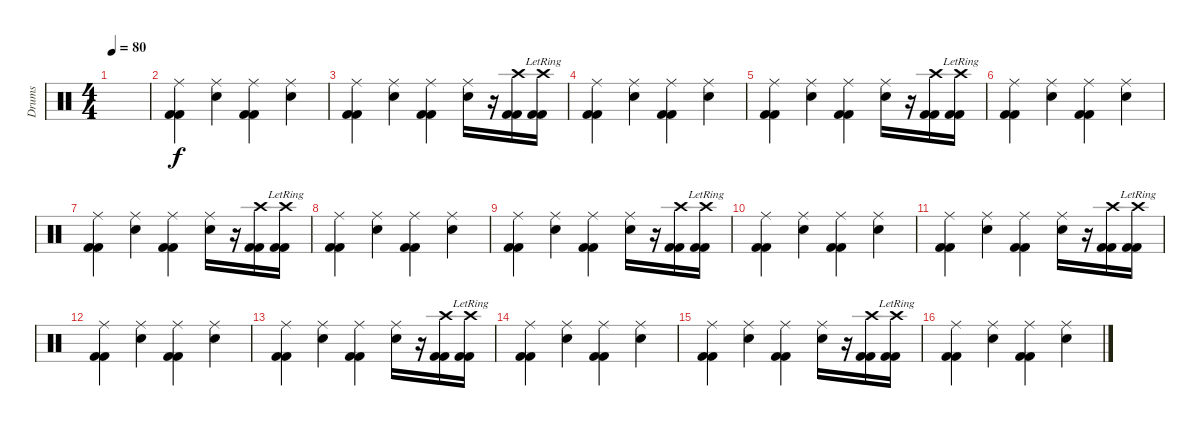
\track ("Drums" "Drums") {instrument percussion}
\staff {score}
\articulation defaults
\ts (4 4)
\tempo 80
\clef neutral
\ks c
|
("Ride (middle)" "Kick (hit) 2" "Kick (hit) 2").4 ("Ride (middle)" "Snare (hit) 2").4 ("Ride (middle)" "Kick (hit) 2" "Kick (hit) 2").4 ("Ride (middle)" "Snare (hit) 2").4 |
("Ride (middle)" "Kick (hit) 2" "Kick (hit) 2").4 ("Ride (middle)" "Snare (hit) 2").4 ("Ride (middle)" "Kick (hit) 2" "Kick (hit) 2").4 ("Ride (middle)" "Snare (hit) 2").16 r.16 ("Crash high (hit)" "Kick (hit) 2" "Kick (hit) 2").16 ("Crash high (hit)"{lr} "Kick (hit) 2" "Kick (hit) 2").16 |
("Ride (middle)" "Kick (hit) 2" "Kick (hit) 2").4 ("Ride (middle)" "Snare (hit) 2").4 ("Ride (middle)" "Kick (hit) 2" "Kick (hit) 2").4 ("Ride (middle)" "Snare (hit) 2").4 |
("Ride (middle)" "Kick (hit) 2" "Kick (hit) 2").4 ("Ride (middle)" "Snare (hit) 2").4 ("Ride (middle)" "Kick (hit) 2" "Kick (hit) 2").4 ("Ride (middle)" "Snare (hit) 2").16 r.16 ("Crash high (hit)" "Kick (hit) 2" "Kick (hit) 2").16 ("Crash high (hit)"{lr} "Kick (hit) 2" "Kick (hit) 2").16 |
("Ride (middle)" "Kick (hit) 2" "Kick (hit) 2").4 ("Ride (middle)" "Snare (hit) 2").4 ("Ride (middle)" "Kick (hit) 2" "Kick (hit) 2").4 ("Ride (middle)" "Snare (hit) 2").4 |
("Ride (middle)" "Kick (hit) 2" "Kick (hit) 2").4 ("Ride (middle)" "Snare (hit) 2").4 ("Ride (middle)" "Kick (hit) 2" "Kick (hit) 2").4 ("Ride (middle)" "Snare (hit) 2").16 r.16 ("Crash high (hit)" "Kick (hit) 2" "Kick (hit) 2").16 ("Crash high (hit)"{lr} "Kick (hit) 2" "Kick (hit) 2").16 |
("Ride (middle)" "Kick (hit) 2" "Kick (hit) 2").4 ("Ride (middle)" "Snare (hit) 2").4 ("Ride (middle)" "Kick (hit) 2" "Kick (hit) 2").4 ("Ride (middle)" "Snare (hit) 2").4 |
("Ride (middle)" "Kick (hit) 2" "Kick (hit) 2").4 ("Ride (middle)" "Snare (hit) 2").4 ("Ride (middle)" "Kick (hit) 2" "Kick (hit) 2").4 ("Ride (middle)" "Snare (hit) 2").16 r.16 ("Crash high (hit)" "Kick (hit) 2" "Kick (hit) 2").16 ("Crash high (hit)"{lr} "Kick (hit) 2" "Kick (hit) 2").16 |
("Ride (middle)" "Kick (hit) 2" "Kick (hit) 2").4 ("Ride (middle)" "Snare (hit) 2").4 ("Ride (middle)" "Kick (hit) 2" "Kick (hit) 2").4 ("Ride (middle)" "Snare (hit) 2").4 |
("Ride (middle)" "Kick (hit) 2" "Kick (hit) 2").4 ("Ride (middle)" "Snare (hit) 2").4 ("Ride (middle)" "Kick (hit) 2" "Kick (hit) 2").4 ("Ride (middle)" "Snare (hit) 2").16 r.16 ("Crash high (hit)" "Kick (hit) 2" "Kick (hit) 2").16 ("Crash high (hit)"{lr} "Kick (hit) 2" "Kick (hit) 2").16 |
("Ride (middle)" "Kick (hit) 2" "Kick (hit) 2").4 ("Ride (middle)" "Snare (hit) 2").4 ("Ride (middle)" "Kick (hit) 2" "Kick (hit) 2").4 ("Ride (middle)" "Snare (hit) 2").4 |
("Ride (middle)" "Kick (hit) 2" "Kick (hit) 2").4 ("Ride (middle)" "Snare (hit) 2").4 ("Ride (middle)" "Kick (hit) 2" "Kick (hit) 2").4 ("Ride (middle)" "Snare (hit) 2").16 r.16 ("Crash high (hit)" "Kick (hit) 2" "Kick (hit) 2").16 ("Crash high (hit)"{lr} "Kick (hit) 2" "Kick (hit) 2").16 |
("Ride (middle)" "Kick (hit) 2" "Kick (hit) 2").4 ("Ride (middle)" "Snare (hit) 2").4 ("Ride (middle)" "Kick (hit) 2" "Kick (hit) 2").4 ("Ride (middle)" "Snare (hit) 2").4 |
("Ride (middle)" "Kick (hit) 2" "Kick (hit) 2").4 ("Ride (middle)" "Snare (hit) 2").4 ("Ride (middle)" "Kick (hit) 2" "Kick (hit) 2").4 ("Ride (middle)" "Snare (hit) 2").16 r.16 ("Crash high (hit)" "Kick (hit) 2" "Kick (hit) 2").16 ("Crash high (hit)"{lr} "Kick (hit) 2" "Kick (hit) 2").16 |
("Ride (middle)" "Kick (hit) 2" "Kick (hit) 2").4 ("Ride (middle)" "Snare (hit) 2").4 ("Ride (middle)" "Kick (hit) 2" "Kick (hit) 2").4 ("Ride (middle)" "Snare (hit) 2").4
